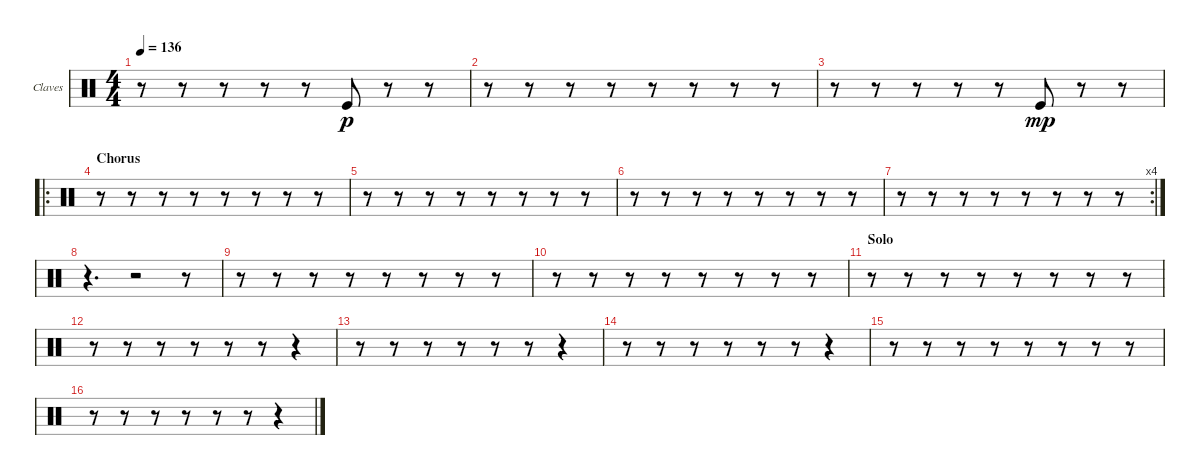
\bracketExtendMode groupsimilarinstruments
\firstSystemTrackNameOrientation horizontal
\otherSystemsTrackNameOrientation horizontal
\track ("Claves" "Claves") {instrument percussion}
\staff {score}
\articulation defaults
\ts (4 4)
\tempo 136
\clef neutral
\ks c
r.8{dy mp} r.8 r.8 r.8 r.8 "Kick (hit)".8{dy p} r.8 r.8 |
r.8 r.8 r.8 r.8 r.8 r.8 r.8 r.8 |
r.8 r.8 r.8 r.8 r.8 "Kick (hit)".8{dy mp} r.8 r.8 |
\ro
\section ("" "Chorus")
r.8 r.8 r.8 r.8 r.8 r.8 r.8 r.8 |
r.8 r.8 r.8 r.8 r.8 r.8 r.8 r.8 |
r.8 r.8 r.8 r.8 r.8 r.8 r.8 r.8 |
\rc 4
r.8 r.8 r.8 r.8 r.8 r.8 r.8 r.8 |
r.4{d} r.2 r.8 |
r.8 r.8 r.8 r.8 r.8 r.8 r.8 r.8 |
r.8 r.8 r.8 r.8 r.8 r.8 r.8 r.8 |
\section ("" "Solo")
r.8 r.8 r.8 r.8 r.8 r.8 r.8 r.8 |
r.8 r.8 r.8 r.8 r.8 r.8 r.4 |
r.8 r.8 r.8 r.8 r.8 r.8 r.4 |
r.8 r.8 r.8 r.8 r.8 r.8 r.4 |
r.8 r.8 r.8 r.8 r.8 r.8 r.8 r.8 |
r.8 r.8 r.8 r.8 r.8 r.8 r.4
